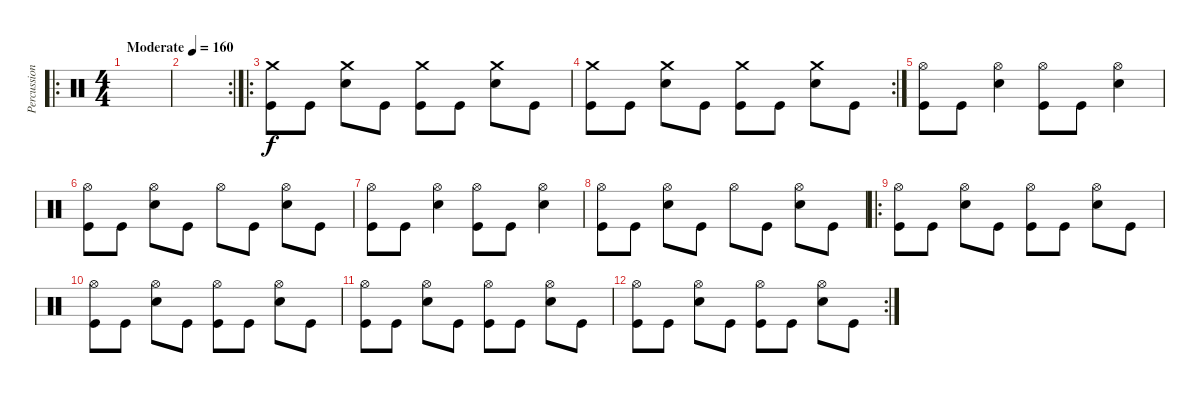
\track ("Percussion" "Percussion") {instrument percussion}
\staff {score}
\articulation defaults
\ro
\ts (4 4)
\tempo (160 "Moderate")
\clef neutral
\ks c
|
\rc 2
|
\ro
("Crash medium (hit)" "Kick (hit)").8 "Kick (hit)".8 ("Crash medium (hit)" "Snare (hit) 2").8 "Kick (hit)".8 ("Crash medium (hit)" "Kick (hit)").8 "Kick (hit)".8 ("Crash medium (hit)" "Snare (hit) 2").8 "Kick (hit)".8 |
\rc 2
("Crash medium (hit)" "Kick (hit)").8 "Kick (hit)".8 ("Crash medium (hit)" "Snare (hit) 2").8 "Kick (hit)".8 ("Crash medium (hit)" "Kick (hit)").8 "Kick (hit)".8 ("Crash medium (hit)" "Snare (hit) 2").8 "Kick (hit)".8 |
("Hi-Hat (open)" "Kick (hit)").8 "Kick (hit)".8 ("Hi-Hat (open)" "Snare (hit) 2").4 ("Hi-Hat (open)" "Kick (hit)").8 "Kick (hit)".8 ("Hi-Hat (open)" "Snare (hit) 2").4 |
("Hi-Hat (open)" "Kick (hit)").8 "Kick (hit)".8 ("Hi-Hat (open)" "Snare (hit) 2").8 "Kick (hit)".8 "Hi-Hat (open)".8 "Kick (hit)".8 ("Hi-Hat (open)" "Snare (hit) 2").8 "Kick (hit)".8 |
("Hi-Hat (open)" "Kick (hit)").8 "Kick (hit)".8 ("Hi-Hat (open)" "Snare (hit) 2").4 ("Hi-Hat (open)" "Kick (hit)").8 "Kick (hit)".8 ("Hi-Hat (open)" "Snare (hit) 2").4 |
("Hi-Hat (open)" "Kick (hit)").8 "Kick (hit)".8 ("Hi-Hat (open)" "Snare (hit) 2").8 "Kick (hit)".8 "Hi-Hat (open)".8 "Kick (hit)".8 ("Hi-Hat (open)" "Snare (hit) 2").8 "Kick (hit)".8 |
\ro
("Hi-Hat (open)" "Kick (hit)").8 "Kick (hit)".8 ("Hi-Hat (open)" "Snare (hit) 2").8 "Kick (hit)".8 ("Hi-Hat (open)" "Kick (hit)").8 "Kick (hit)".8 ("Hi-Hat (open)" "Snare (hit) 2").8 "Kick (hit)".8 |
("Hi-Hat (open)" "Kick (hit)").8 "Kick (hit)".8 ("Hi-Hat (open)" "Snare (hit) 2").8 "Kick (hit)".8 ("Hi-Hat (open)" "Kick (hit)").8 "Kick (hit)".8 ("Hi-Hat (open)" "Snare (hit) 2").8 "Kick (hit)".8 |
("Hi-Hat (open)" "Kick (hit)").8 "Kick (hit)".8 ("Hi-Hat (open)" "Snare (hit) 2").8 "Kick (hit)".8 ("Hi-Hat (open)" "Kick (hit)").8 "Kick (hit)".8 ("Hi-Hat (open)" "Snare (hit) 2").8 "Kick (hit)".8 |
\rc 2
("Hi-Hat (open)" "Kick (hit)").8 "Kick (hit)".8 ("Hi-Hat (open)" "Snare (hit) 2").8 "Kick (hit)".8 ("Hi-Hat (open)" "Kick (hit)").8 "Kick (hit)".8 ("Hi-Hat (open)" "Snare (hit) 2").8 "Kick (hit)".8
